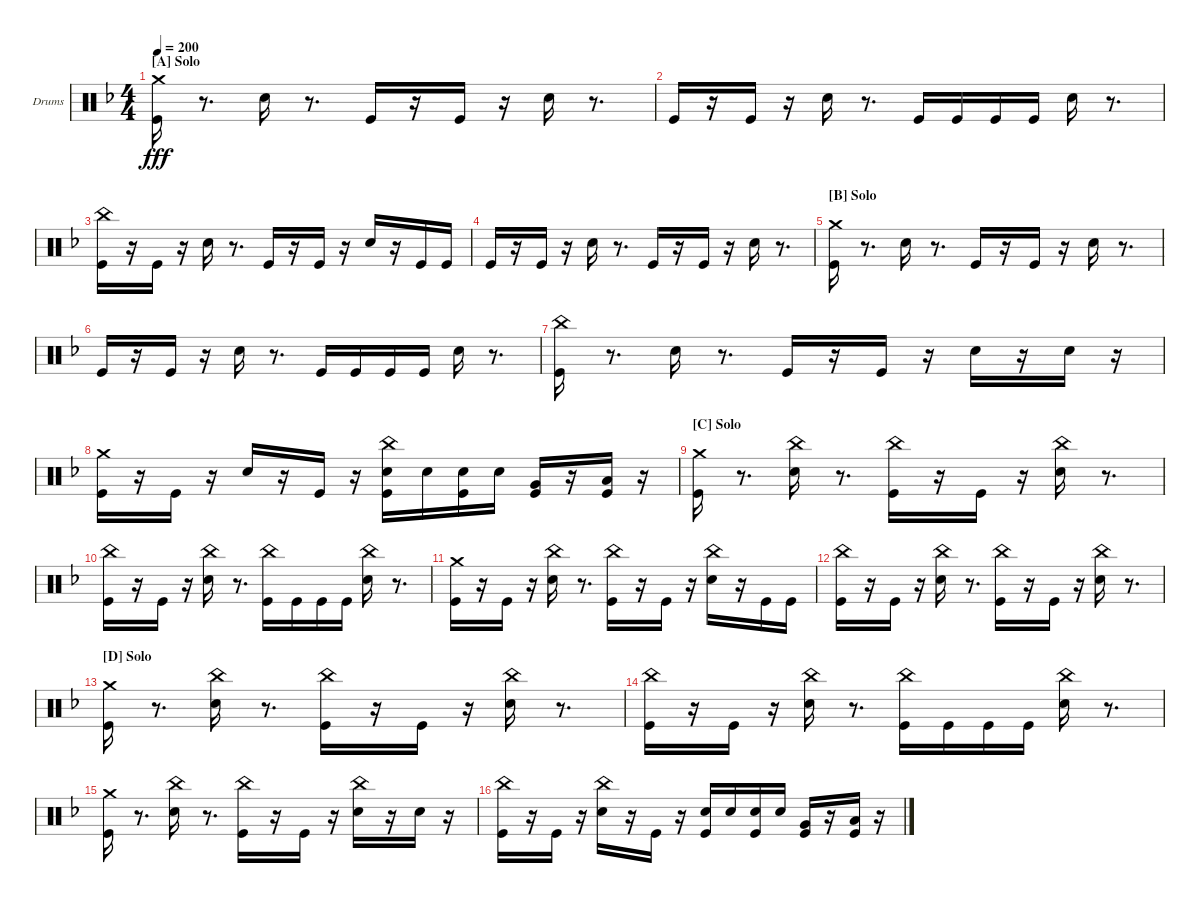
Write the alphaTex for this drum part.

\bracketExtendMode groupsimilarinstruments
\firstSystemTrackNameOrientation horizontal
\otherSystemsTrackNameOrientation horizontal
\track ("Drumkit" "Drums") {instrument percussion}
\staff {score}
\articulation defaults
\ts (4 4)
\section ("A" "Solo")
\tempo 200
\clef neutral
\scale
0.333333
\ks dminor
("Crash medium (hit)" "Kick (hit)").16{dy fff} r.8{d} "Snare (hit) 2".16 r.8{d} "Kick (hit)".16 r.16 "Kick (hit)".16 r.16 "Snare (hit) 2".16 r.8{d} |
\scale
0.333333 "Kick (hit)".16 r.16 "Kick (hit)".16 r.16 "Snare (hit) 2".16 r.8{d} "Kick (hit)".16 "Kick (hit)".16 "Kick (hit)".16 "Kick (hit)".16 "Snare (hit) 2".16 r.8{d} |
\scale
0.333333 ("China (hit)" "Kick (hit)").16 r.16 "Kick (hit)".16 r.16 "Snare (hit) 2".16 r.8{d} "Kick (hit)".16 r.16 "Kick (hit)".16 r.16 "Snare (hit) 2".16 r.16 "Kick (hit)".16 "Kick (hit)".16 |
\scale
0.333333 "Kick (hit)".16 r.16 "Kick (hit)".16 r.16 "Snare (hit) 2".16 r.8{d} "Kick (hit)".16 r.16 "Kick (hit)".16 r.16 "Snare (hit) 2".16 r.8{d} |
\section ("B" "Solo")
\scale
0.333333 ("Crash medium (hit)" "Kick (hit)").16 r.8{d} "Snare (hit) 2".16 r.8{d} "Kick (hit)".16 r.16 "Kick (hit)".16 r.16 "Snare (hit) 2".16 r.8{d} |
\scale
0.333333 "Kick (hit)".16 r.16 "Kick (hit)".16 r.16 "Snare (hit) 2".16 r.8{d} "Kick (hit)".16 "Kick (hit)".16 "Kick (hit)".16 "Kick (hit)".16 "Snare (hit) 2".16 r.8{d} |
\scale
0.333333 ("China (hit)" "Kick (hit)").16 r.8{d} "Snare (hit) 2".16 r.8{d} "Kick (hit)".16 r.16 "Kick (hit)".16 r.16 "Snare (hit) 2".16 r.16 "Snare (hit) 2".16 r.16 |
\scale
0.333333 ("Crash medium (hit)" "Kick (hit)").16 r.16 "Kick (hit)".16 r.16 "Snare (hit) 2".16 r.16 "Kick (hit)".16 r.16 ("China (hit)" "Kick (hit)" "Snare (hit) 2").16 "Snare (hit) 2".16 ("Kick (hit)" "Snare (hit) 2").16 "Snare (hit) 2".16 ("Kick (hit)" "Very Low Tom (hit)").16 r.16 ("Kick (hit)" "Low Tom (hit)").16 r.16 |
\section ("C" "Solo")
\scale
0.333333 ("Kick (hit)" "Crash medium (hit)").16 r.8{d} ("China (hit)" "Snare (hit) 2").16 r.8{d} ("China (hit)" "Kick (hit)").16 r.16 "Kick (hit)".16 r.16 ("China (hit)" "Snare (hit) 2").16 r.8{d} |
\scale
0.333333 ("China (hit)" "Kick (hit)").16 r.16 "Kick (hit)".16 r.16 ("China (hit)" "Snare (hit) 2").16 r.8{d} ("China (hit)" "Kick (hit)").16 "Kick (hit)".16 "Kick (hit)".16 "Kick (hit)".16 ("China (hit)" "Snare (hit) 2").16 r.8{d} |
\scale
0.333333 ("Crash medium (hit)" "Kick (hit)").16 r.16 "Kick (hit)".16 r.16 ("China (hit)" "Snare (hit) 2").16 r.8{d} ("China (hit)" "Kick (hit)").16 r.16 "Kick (hit)".16 r.16 ("China (hit)" "Snare (hit) 2").16 r.16 "Kick (hit)".16 "Kick (hit)".16 |
\scale
0.333333 ("China (hit)" "Kick (hit)").16 r.16 "Kick (hit)".16 r.16 ("China (hit)" "Snare (hit) 2").16 r.8{d} ("China (hit)" "Kick (hit)").16 r.16 "Kick (hit)".16 r.16 ("China (hit)" "Snare (hit) 2").16 r.8{d} |
\section ("D" "Solo")
\scale
0.333333 ("Crash medium (hit)" "Kick (hit)").16 r.8{d} ("China (hit)" "Snare (hit) 2").16 r.8{d} ("China (hit)" "Kick (hit)").16 r.16 "Kick (hit)".16 r.16 ("China (hit)" "Snare (hit) 2").16 r.8{d} |
\scale
0.333333 ("China (hit)" "Kick (hit)").16 r.16 "Kick (hit)".16 r.16 ("China (hit)" "Snare (hit) 2").16 r.8{d} ("China (hit)" "Kick (hit)").16 "Kick (hit)".16 "Kick (hit)".16 "Kick (hit)".16 ("China (hit)" "Snare (hit) 2").16 r.8{d} |
\scale
0.333333 ("Crash medium (hit)" "Kick (hit)").16 r.8{d} ("China (hit)" "Snare (hit) 2").16 r.8{d} ("China (hit)" "Kick (hit)").16 r.16 "Kick (hit)".16 r.16 ("China (hit)" "Snare (hit) 2").16 r.16 "Snare (hit) 2".16 r.16 |
\scale
0.333333 ("China (hit)" "Kick (hit)").16 r.16 "Kick (hit)".16 r.16 ("China (hit)" "Snare (hit) 2").16 r.16 "Kick (hit)".16 r.16 ("Snare (hit) 2" "Kick (hit)").16 "Snare (hit) 2".16 ("Snare (hit) 2" "Kick (hit)").16 "Snare (hit) 2".16 ("Very Low Tom (hit)" "Kick (hit)").16 r.16 ("Low Tom (hit)" "Kick (hit)").16 r.16
